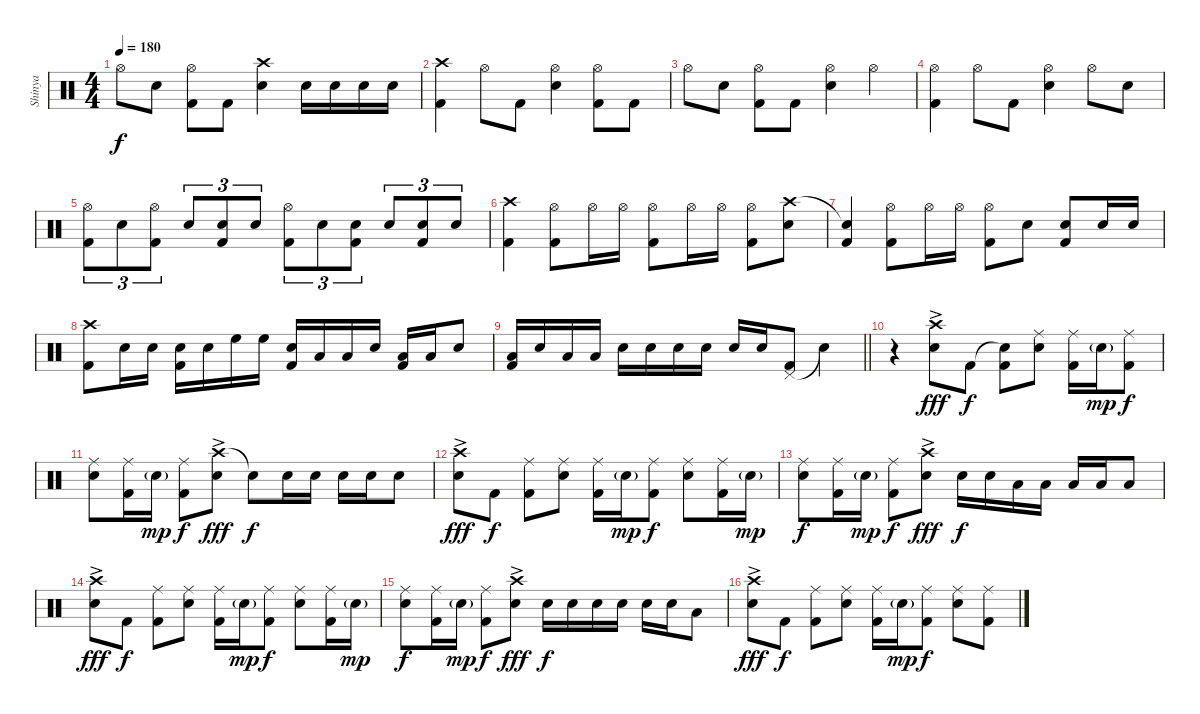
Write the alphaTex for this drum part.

\track ("Shinya" "Shinya") {instrument percussion}
\staff {score}
\articulation defaults
\ts (4 4)
\tempo 180
\clef neutral
\ks c "Hi-Hat (open)".8{dy f} "Electric Snare (hit)".8
("Hi-Hat (open)" "Kick (hit) 2").8 "Kick (hit) 2".8 ("Crash high (hit)" "Electric Snare (hit)").4 "Electric Snare (hit)".16 "Electric Snare (hit)".16 "Electric Snare (hit)".16 "Electric Snare (hit)".16 |
("Crash high (hit)" "Kick (hit) 2").4 "Hi-Hat (open)".8 "Kick (hit) 2".8 ("Hi-Hat (open)" "Electric Snare (hit)").4 ("Hi-Hat (open)" "Kick (hit) 2").8 "Kick (hit) 2".8 |
"Hi-Hat (open)".8 "Electric Snare (hit)".8 ("Hi-Hat (open)" "Kick (hit) 2").8 "Kick (hit) 2".8 ("Hi-Hat (open)" "Electric Snare (hit)").4 "Hi-Hat (open)".4 |
("Hi-Hat (open)" "Kick (hit) 2").4 "Hi-Hat (open)".8 "Kick (hit) 2".8 ("Hi-Hat (open)" "Electric Snare (hit)").4 "Hi-Hat (open)".8 "Electric Snare (hit)".8 |
("Hi-Hat (open)" "Kick (hit) 2").8{tu (3 2)} "Electric Snare (hit)".8{tu (3 2)} ("Hi-Hat (open)" "Kick (hit) 2").8{tu (3 2)} "Electric Snare (hit)".8{tu (3 2)} ("Electric Snare (hit)" "Kick (hit) 2").8{tu (3 2)} "Electric Snare (hit)".8{tu (3 2)} ("Hi-Hat (open)" "Kick (hit) 2").8{tu (3 2)} "Electric Snare (hit)".8{tu (3 2)} ("Electric Snare (hit)" "Kick (hit) 2").8{tu (3 2)} "Electric Snare (hit)".8{tu (3 2)} ("Electric Snare (hit)" "Kick (hit) 2").8{tu (3 2)} "Electric Snare (hit)".8{tu (3 2)} |
("Crash high (hit)" "Kick (hit) 2").4 ("Hi-Hat (open)" "Kick (hit) 2").8 "Hi-Hat (open)".16 "Hi-Hat (open)".16 ("Hi-Hat (open)" "Kick (hit) 2").8 "Hi-Hat (open)".16 "Hi-Hat (open)".16 ("Hi-Hat (open)" "Kick (hit) 2").8 ("Crash high (hit)" "Electric Snare (hit)").8 |
("Snare (hit)"{t} "Kick (hit) 2").4 ("Hi-Hat (open)" "Kick (hit) 2").8 "Hi-Hat (open)".16 "Hi-Hat (open)".16 ("Hi-Hat (open)" "Kick (hit) 2").8 "Electric Snare (hit)".8 ("Electric Snare (hit)" "Kick (hit) 2").8 "Electric Snare (hit)".16 "Electric Snare (hit)".16 |
("Crash high (hit)" "Kick (hit) 2").8 "Electric Snare (hit)".16 "Electric Snare (hit)".16 ("Electric Snare (hit)" "Kick (hit) 2").16 "Electric Snare (hit)".16 "High Floor Tom (hit)".16 "High Floor Tom (hit)".16 ("Electric Snare (hit)" "Kick (hit) 2").16 "Low Tom (hit)".16 "Low Tom (hit)".16 "Electric Snare (hit)".16 ("Low Tom (hit)" "Kick (hit) 2").16 "Low Tom (hit)".16 "Electric Snare (hit)".8 |
\barLineRight lightlight
("Low Tom (hit)" "Kick (hit) 2").16 "Electric Snare (hit)".16 "Low Tom (hit)".16 "Low Tom (hit)".16 "Electric Snare (hit)".16 "Electric Snare (hit)".16 "Electric Snare (hit)".16 "Electric Snare (hit)".16 "Electric Snare (hit)".16 "Electric Snare (hit)".16 ("Pedal Hi-Hat (hit)" "Kick (hit) 2").8 "Snare (hit)"{t}.4 |
r.4 ("Crash high (hit)"{ac} "Electric Snare (hit)").8{dy fff} "Kick (hit) 2".8{dy f} ("Snare (hit)"{t} "Kick (hit) 2").8 ("Ride (middle)" "Electric Snare (hit)").8 ("Ride (middle)" "Kick (hit) 2").16 "Electric Snare (hit)"{g}.16{dy mp} ("Ride (middle)" "Kick (hit) 2").8{dy f} |
("Ride (middle)" "Electric Snare (hit)").8 ("Ride (middle)" "Kick (hit) 2").16 "Electric Snare (hit)"{g}.16{dy mp} ("Ride (middle)" "Kick (hit) 2").8{dy f} ("Crash high (hit)"{ac} "Electric Snare (hit)").8{dy fff} "Snare (hit)"{t}.8{dy f} "Electric Snare (hit)".16 "Electric Snare (hit)".16 "Electric Snare (hit)".16 "Electric Snare (hit)".16 "Electric Snare (hit)".8 |
("Crash high (hit)"{ac} "Electric Snare (hit)").8{dy fff} "Kick (hit) 2".8{dy f} ("Ride (middle)" "Kick (hit) 2").8 ("Ride (middle)" "Electric Snare (hit)").8 ("Ride (middle)" "Kick (hit) 2").16 "Electric Snare (hit)"{g}.16{dy mp} ("Ride (middle)" "Kick (hit) 2").8{dy f} ("Ride (middle)" "Electric Snare (hit)").8 ("Ride (middle)" "Kick (hit) 2").16 "Electric Snare (hit)"{g}.16{dy mp} |
("Ride (middle)" "Electric Snare (hit)").8{dy f} ("Ride (middle)" "Kick (hit) 2").16 "Electric Snare (hit)"{g}.16{dy mp} ("Ride (middle)" "Kick (hit) 2").8{dy f} ("Crash high (hit)"{ac} "Electric Snare (hit)").8{dy fff} "Electric Snare (hit)".16{dy f} "Electric Snare (hit)".16 "Low Tom (hit)".16 "Low Tom (hit)".16 "Low Tom (hit)".16 "Low Tom (hit)".16 "Low Tom (hit)".8 |
("Crash high (hit)"{ac} "Electric Snare (hit)").8{dy fff} "Kick (hit) 2".8{dy f} ("Ride (middle)" "Kick (hit) 2").8 ("Ride (middle)" "Electric Snare (hit)").8 ("Ride (middle)" "Kick (hit) 2").16 "Electric Snare (hit)"{g}.16{dy mp} ("Ride (middle)" "Kick (hit) 2").8{dy f} ("Ride (middle)" "Electric Snare (hit)").8 ("Ride (middle)" "Kick (hit) 2").16 "Electric Snare (hit)"{g}.16{dy mp} |
("Ride (middle)" "Electric Snare (hit)").8{dy f} ("Ride (middle)" "Kick (hit) 2").16 "Electric Snare (hit)"{g}.16{dy mp} ("Ride (middle)" "Kick (hit) 2").8{dy f} ("Crash high (hit)"{ac} "Electric Snare (hit)").8{dy fff} "Electric Snare (hit)".16{dy f} "Electric Snare (hit)".16 "Electric Snare (hit)".16 "Electric Snare (hit)".16 "Electric Snare (hit)".16 "Electric Snare (hit)".16 "Low Tom (hit)".8 |
("Crash high (hit)"{ac} "Electric Snare (hit)").8{dy fff} "Kick (hit) 2".8{dy f} ("Ride (middle)" "Kick (hit) 2").8 ("Ride (middle)" "Electric Snare (hit)").8 ("Ride (middle)" "Kick (hit) 2").16 "Electric Snare (hit)"{g}.16{dy mp} ("Ride (middle)" "Kick (hit) 2").8{dy f} ("Ride (middle)" "Electric Snare (hit)").8 ("Ride (middle)" "Kick (hit) 2").8
